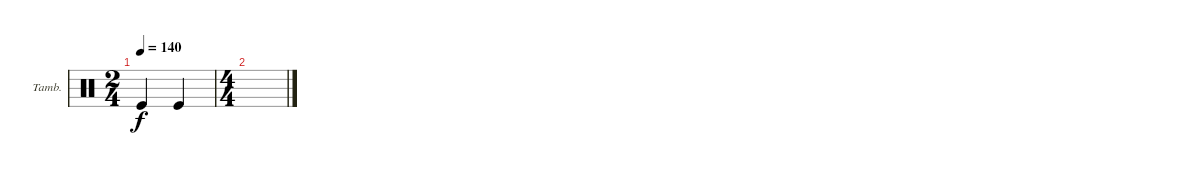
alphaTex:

\defaultSystemsLayout 4
\bracketExtendMode groupsimilarinstruments
\firstSystemTrackNameOrientation horizontal
\otherSystemsTrackNameOrientation horizontal
\track ("Tambourine" "Tamb.") {instrument percussion}
\staff {score}
\articulation defaults
\ts (2 4)
\tempo 140
\clef neutral
\ks c "Kick (hit)".4{dy f} "Kick (hit)".4
|
\ts (4 4)
